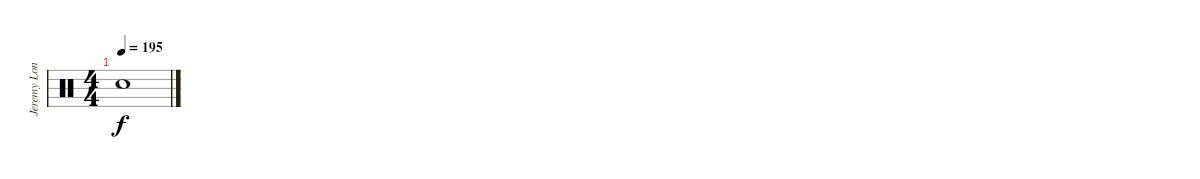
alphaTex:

\track ("Jeremy London" "Jeremy Lon") {instrument percussion}
\staff {score}
\articulation defaults
\ts (4 4)
\tempo 195
\clef neutral
\ks c "Snare (hit)"{t}.1{dy f}
